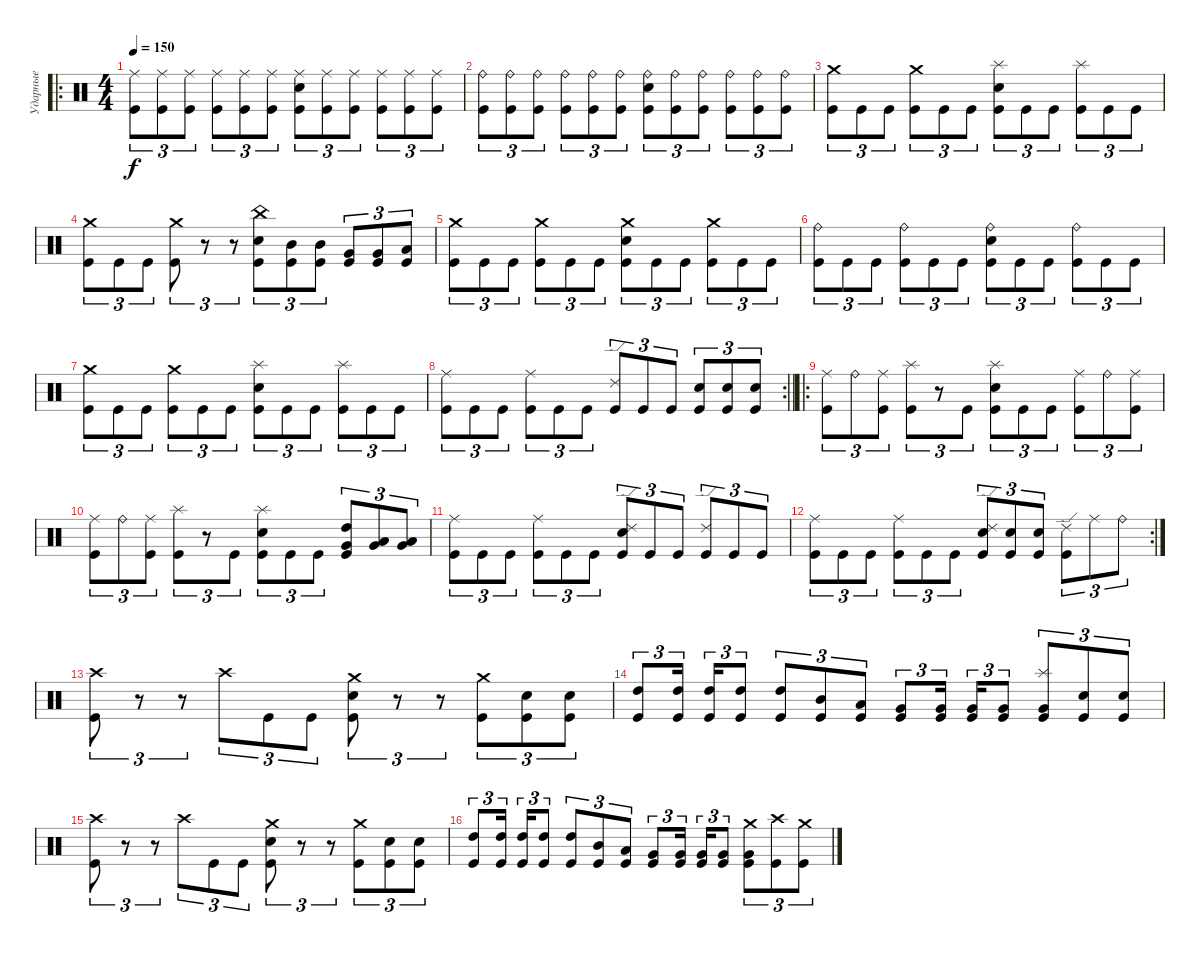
\track ("Ударные" "Ударные") {instrument percussion}
\staff {score}
\articulation defaults
\ro
\ts (4 4)
\section ("" " ")
\tempo 150
\clef neutral
\ks c
("Ride (middle)" "Kick (hit)").8{tu (3 2) dy f} ("Ride (middle)" "Kick (hit)").8{tu (3 2)} ("Ride (middle)" "Kick (hit)").8{tu (3 2)} ("Ride (middle)" "Kick (hit)").8{tu (3 2)} ("Ride (middle)" "Kick (hit)").8{tu (3 2)} ("Ride (middle)" "Kick (hit)").8{tu (3 2)} ("Ride (middle)" "Electric Snare (hit)" "Kick (hit)").8{tu (3 2)} ("Ride (middle)" "Kick (hit)").8{tu (3 2)} ("Ride (middle)" "Kick (hit)").8{tu (3 2)} ("Ride (middle)" "Kick (hit)").8{tu (3 2)} ("Ride (middle)" "Kick (hit)").8{tu (3 2)} ("Ride (middle)" "Kick (hit)").8{tu (3 2)} |
("Ride (bell)" "Kick (hit)").8{tu (3 2)} ("Ride (bell)" "Kick (hit)").8{tu (3 2)} ("Ride (bell)" "Kick (hit)").8{tu (3 2)} ("Ride (bell)" "Kick (hit)").8{tu (3 2)} ("Ride (bell)" "Kick (hit)").8{tu (3 2)} ("Ride (bell)" "Kick (hit)").8{tu (3 2)} ("Ride (bell)" "Electric Snare (hit)" "Kick (hit)").8{tu (3 2)} ("Ride (bell)" "Kick (hit)").8{tu (3 2)} ("Ride (bell)" "Kick (hit)").8{tu (3 2)} ("Ride (bell)" "Kick (hit)").8{tu (3 2)} ("Ride (bell)" "Kick (hit)").8{tu (3 2)} ("Ride (bell)" "Kick (hit)").8{tu (3 2)} |
("Crash medium (hit)" "Kick (hit)").8{tu (3 2)} "Kick (hit)".8{tu (3 2)} "Kick (hit)".8{tu (3 2)} ("Crash medium (hit)" "Kick (hit)").8{tu (3 2)} "Kick (hit)".8{tu (3 2)} "Kick (hit)".8{tu (3 2)} ("Splash (hit)" "Electric Snare (hit)" "Kick (hit)").8{tu (3 2)} "Kick (hit)".8{tu (3 2)} "Kick (hit)".8{tu (3 2)} ("Splash (hit)" "Kick (hit)").8{tu (3 2)} "Kick (hit)".8{tu (3 2)} "Kick (hit)".8{tu (3 2)} |
("Crash medium (hit)" "Kick (hit)").8{tu (3 2)} "Kick (hit)".8{tu (3 2)} "Kick (hit)".8{tu (3 2)} ("Crash medium (hit)" "Kick (hit)").8{tu (3 2)} r.8{tu (3 2)} r.8{tu (3 2)} ("China (hit)" "Electric Snare (hit)" "Kick (hit)").8{tu (3 2)} ("Mid Tom (hit)" "Kick (hit)").8{tu (3 2)} ("Mid Tom (hit)" "Kick (hit)").8{tu (3 2)} ("Very Low Tom (hit)" "Kick (hit)").8{tu (3 2)} ("Very Low Tom (hit)" "Kick (hit)").8{tu (3 2)} ("Low Floor Tom (hit)" "Kick (hit)").8{tu (3 2)} |
("Crash medium (hit)" "Kick (hit)").8{tu (3 2)} "Kick (hit)".8{tu (3 2)} "Kick (hit)".8{tu (3 2)} ("Crash medium (hit)" "Kick (hit)").8{tu (3 2)} "Kick (hit)".8{tu (3 2)} "Kick (hit)".8{tu (3 2)} ("Crash medium (hit)" "Electric Snare (hit)" "Kick (hit)").8{tu (3 2)} "Kick (hit)".8{tu (3 2)} "Kick (hit)".8{tu (3 2)} ("Crash medium (hit)" "Kick (hit)").8{tu (3 2)} "Kick (hit)".8{tu (3 2)} "Kick (hit)".8{tu (3 2)} |
("Ride (bell)" "Kick (hit)").8{tu (3 2)} "Kick (hit)".8{tu (3 2)} "Kick (hit)".8{tu (3 2)} ("Ride (bell)" "Kick (hit)").8{tu (3 2)} "Kick (hit)".8{tu (3 2)} "Kick (hit)".8{tu (3 2)} ("Ride (bell)" "Electric Snare (hit)" "Kick (hit)").8{tu (3 2)} "Kick (hit)".8{tu (3 2)} "Kick (hit)".8{tu (3 2)} ("Ride (bell)" "Kick (hit)").8{tu (3 2)} "Kick (hit)".8{tu (3 2)} "Kick (hit)".8{tu (3 2)} |
("Crash medium (hit)" "Kick (hit)").8{tu (3 2)} "Kick (hit)".8{tu (3 2)} "Kick (hit)".8{tu (3 2)} ("Crash medium (hit)" "Kick (hit)").8{tu (3 2)} "Kick (hit)".8{tu (3 2)} "Kick (hit)".8{tu (3 2)} ("Splash (hit)" "Electric Snare (hit)" "Kick (hit)").8{tu (3 2)} "Kick (hit)".8{tu (3 2)} "Kick (hit)".8{tu (3 2)} ("Splash (hit)" "Kick (hit)").8{tu (3 2)} "Kick (hit)".8{tu (3 2)} "Kick (hit)".8{tu (3 2)} |
\rc 2
\barLineRight lightlight
("Ride (middle)" "Kick (hit)").8{tu (3 2)} "Kick (hit)".8{tu (3 2)} "Kick (hit)".8{tu (3 2)} ("Ride (middle)" "Kick (hit)").8{tu (3 2)} "Kick (hit)".8{tu (3 2)} "Kick (hit)".8{tu (3 2)} ("Ride (edge) 2" "Kick (hit)").8{tu (3 2)} "Kick (hit)".8{tu (3 2)} "Kick (hit)".8{tu (3 2)} ("Electric Snare (hit)" "Kick (hit)").8{tu (3 2)} ("Electric Snare (hit)" "Kick (hit)").8{tu (3 2)} ("Electric Snare (hit)" "Kick (hit)").8{tu (3 2)} |
\ro
\section ("" " ")
("Kick (hit)" "Ride (middle)").8{tu (3 2)} "Ride (bell)".8{tu (3 2)} ("Kick (hit)" "Ride (middle)").8{tu (3 2)} ("Kick (hit)" "Splash (hit)").8{tu (3 2)} r.8{tu (3 2)} "Kick (hit)".8{tu (3 2)} ("Electric Snare (hit)" "Kick (hit)" "Splash (hit)").8{tu (3 2)} "Kick (hit)".8{tu (3 2)} "Kick (hit)".8{tu (3 2)} ("Kick (hit)" "Ride (middle)").8{tu (3 2)} "Ride (bell)".8{tu (3 2)} ("Kick (hit)" "Ride (middle)").8{tu (3 2)} |
("Kick (hit)" "Ride (middle)").8{tu (3 2)} "Ride (bell)".8{tu (3 2)} ("Kick (hit)" "Ride (middle)").8{tu (3 2)} ("Kick (hit)" "Splash (hit)").8{tu (3 2)} r.8{tu (3 2)} "Kick (hit)".8{tu (3 2)} ("Electric Snare (hit)" "Kick (hit)" "Splash (hit)").8{tu (3 2)} "Kick (hit)".8{tu (3 2)} "Kick (hit)".8{tu (3 2)} ("Kick (hit)" "High Tom (hit)" "Very Low Tom (hit)").8{tu (3 2)} ("Low Tom (hit)" "Very Low Tom (hit)").8{tu (3 2)} ("Very Low Tom (hit)" "Low Floor Tom (hit)").8{tu (3 2)} |
("Ride (middle)" "Kick (hit)").8{tu (3 2)} "Kick (hit)".8{tu (3 2)} "Kick (hit)".8{tu (3 2)} ("Ride (middle)" "Kick (hit)").8{tu (3 2)} "Kick (hit)".8{tu (3 2)} "Kick (hit)".8{tu (3 2)} ("Ride (edge) 2" "Electric Snare (hit)" "Kick (hit)").8{tu (3 2)} "Kick (hit)".8{tu (3 2)} "Kick (hit)".8{tu (3 2)} ("Ride (edge) 2" "Kick (hit)").8{tu (3 2)} "Kick (hit)".8{tu (3 2)} "Kick (hit)".8{tu (3 2)} |
\rc 2
("Ride (middle)" "Kick (hit)").8{tu (3 2)} "Kick (hit)".8{tu (3 2)} "Kick (hit)".8{tu (3 2)} ("Ride (middle)" "Kick (hit)").8{tu (3 2)} "Kick (hit)".8{tu (3 2)} "Kick (hit)".8{tu (3 2)} ("Ride (edge) 2" "Electric Snare (hit)" "Kick (hit)").8{tu (3 2)} ("Electric Snare (hit)" "Kick (hit)").8{tu (3 2)} ("Electric Snare (hit)" "Kick (hit)").8{tu (3 2)} ("Ride (edge) 2" "Kick (hit)").8{tu (3 2)} "Ride (middle)".8{tu (3 2)} "Ride (bell)".8{tu (3 2)} |
("Crash high (hit)" "Kick (hit)").8{tu (3 2)} r.8{tu (3 2)} r.8{tu (3 2)} "Crash high (hit)".8{tu (3 2)} "Kick (hit)".8{tu (3 2)} "Kick (hit)".8{tu (3 2)} ("Crash medium (hit)" "Electric Snare (hit)" "Kick (hit)").8{tu (3 2)} r.8{tu (3 2)} r.8{tu (3 2)} ("Crash medium (hit)" "Kick (hit)").8{tu (3 2)} ("Electric Snare (hit)" "Kick (hit)").8{tu (3 2)} ("Electric Snare (hit)" "Kick (hit)").8{tu (3 2)} |
("High Tom (hit)" "Kick (hit)").8{tu (3 2)} ("High Tom (hit)" "Kick (hit)").16{tu (3 2) beam splitsecondary} ("High Tom (hit)" "Kick (hit)").16{tu (3 2)} ("High Tom (hit)" "Kick (hit)").8{tu (3 2)} ("High Tom (hit)" "Kick (hit)").8{tu (3 2)} ("Mid Tom (hit)" "Kick (hit)").8{tu (3 2)} ("Low Tom (hit)" "Kick (hit)").8{tu (3 2)} ("Very Low Tom (hit)" "Kick (hit)").8{tu (3 2)} ("Very Low Tom (hit)" "Kick (hit)").16{tu (3 2) beam splitsecondary} ("Very Low Tom (hit)" "Kick (hit)").16{tu (3 2)} ("Very Low Tom (hit)" "Kick (hit)").8{tu (3 2)} ("Very Low Tom (hit)" "Splash (hit)" "Kick (hit)").8{tu (3 2)} ("Electric Snare (hit)" "Kick (hit)").8{tu (3 2)} ("Electric Snare (hit)" "Kick (hit)").8{tu (3 2)} |
("Crash high (hit)" "Kick (hit)").8{tu (3 2)} r.8{tu (3 2)} r.8{tu (3 2)} "Crash high (hit)".8{tu (3 2)} "Kick (hit)".8{tu (3 2)} "Kick (hit)".8{tu (3 2)} ("Crash medium (hit)" "Electric Snare (hit)" "Kick (hit)").8{tu (3 2)} r.8{tu (3 2)} r.8{tu (3 2)} ("Crash medium (hit)" "Kick (hit)").8{tu (3 2)} ("Electric Snare (hit)" "Kick (hit)").8{tu (3 2)} ("Electric Snare (hit)" "Kick (hit)").8{tu (3 2)} |
("High Tom (hit)" "Kick (hit)").8{tu (3 2)} ("High Tom (hit)" "Kick (hit)").16{tu (3 2) beam splitsecondary} ("High Tom (hit)" "Kick (hit)").16{tu (3 2)} ("High Tom (hit)" "Kick (hit)").8{tu (3 2)} ("High Tom (hit)" "Kick (hit)").8{tu (3 2)} ("Mid Tom (hit)" "Kick (hit)").8{tu (3 2)} ("Low Tom (hit)" "Kick (hit)").8{tu (3 2)} ("Very Low Tom (hit)" "Kick (hit)").8{tu (3 2)} ("Very Low Tom (hit)" "Kick (hit)").16{tu (3 2) beam splitsecondary} ("Very Low Tom (hit)" "Kick (hit)").16{tu (3 2)} ("Very Low Tom (hit)" "Kick (hit)").8{tu (3 2)} ("Very Low Tom (hit)" "Crash medium (hit)" "Kick (hit)").8{tu (3 2)} ("Crash high (hit)" "Kick (hit)").8{tu (3 2)} ("Crash medium (hit)" "Kick (hit)").8{tu (3 2)}
